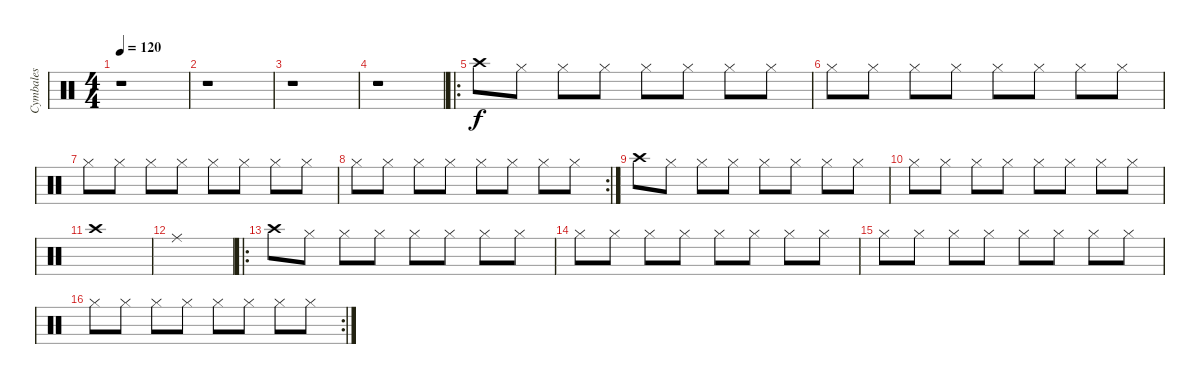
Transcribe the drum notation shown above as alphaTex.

\track ("Cymbales" "Cymbales") {instrument percussion}
\staff {score}
\articulation defaults
\ts (4 4)
\tempo 120
\clef neutral
\ks c
r.1{dy f} |
r.1 |
r.1 |
r.1 |
\ro "Crash high (hit)".8 "Hi-Hat (closed)".8 "Hi-Hat (closed)".8 "Hi-Hat (closed)".8 "Hi-Hat (closed)".8 "Hi-Hat (closed)".8 "Hi-Hat (closed)".8 "Hi-Hat (closed)".8
|
"Hi-Hat (closed)".8 "Hi-Hat (closed)".8 "Hi-Hat (closed)".8 "Hi-Hat (closed)".8 "Hi-Hat (closed)".8 "Hi-Hat (closed)".8 "Hi-Hat (closed)".8 "Hi-Hat (closed)".8 |
"Hi-Hat (closed)".8 "Hi-Hat (closed)".8 "Hi-Hat (closed)".8 "Hi-Hat (closed)".8 "Hi-Hat (closed)".8 "Hi-Hat (closed)".8 "Hi-Hat (closed)".8 "Hi-Hat (closed)".8 |
\rc 2 "Hi-Hat (closed)".8 "Hi-Hat (closed)".8 "Hi-Hat (closed)".8 "Hi-Hat (closed)".8 "Hi-Hat (closed)".8 "Hi-Hat (closed)".8 "Hi-Hat (closed)".8 "Hi-Hat (closed)".8
|
"Crash high (hit)".8 "Hi-Hat (closed)".8 "Hi-Hat (closed)".8 "Hi-Hat (closed)".8 "Hi-Hat (closed)".8 "Hi-Hat (closed)".8 "Hi-Hat (closed)".8 "Hi-Hat (closed)".8 |
"Hi-Hat (closed)".8 "Hi-Hat (closed)".8 "Hi-Hat (closed)".8 "Hi-Hat (closed)".8 "Hi-Hat (closed)".8 "Hi-Hat (closed)".8 "Hi-Hat (closed)".8 "Hi-Hat (closed)".8 |
"Crash high (hit)".1 |
"Ride (middle)".1 |
\ro "Crash high (hit)".8 "Hi-Hat (closed)".8 "Hi-Hat (closed)".8 "Hi-Hat (closed)".8 "Hi-Hat (closed)".8 "Hi-Hat (closed)".8 "Hi-Hat (closed)".8 "Hi-Hat (closed)".8
|
"Hi-Hat (closed)".8 "Hi-Hat (closed)".8 "Hi-Hat (closed)".8 "Hi-Hat (closed)".8 "Hi-Hat (closed)".8 "Hi-Hat (closed)".8 "Hi-Hat (closed)".8 "Hi-Hat (closed)".8 |
"Hi-Hat (closed)".8 "Hi-Hat (closed)".8 "Hi-Hat (closed)".8 "Hi-Hat (closed)".8 "Hi-Hat (closed)".8 "Hi-Hat (closed)".8 "Hi-Hat (closed)".8 "Hi-Hat (closed)".8 |
\rc 2 "Hi-Hat (closed)".8 "Hi-Hat (closed)".8 "Hi-Hat (closed)".8 "Hi-Hat (closed)".8 "Hi-Hat (closed)".8 "Hi-Hat (closed)".8 "Hi-Hat (closed)".8 "Hi-Hat (closed)".8
